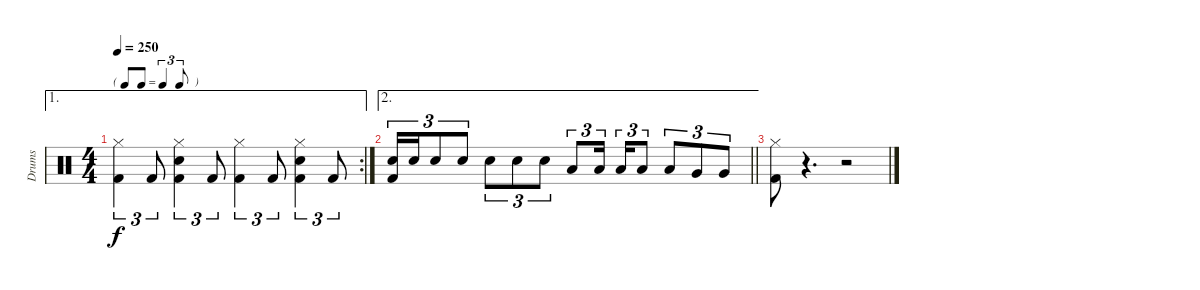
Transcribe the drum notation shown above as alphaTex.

\track ("Drums" "Drums") {instrument percussion}
\staff {score}
\articulation defaults
\ae 1
\rc 2
\ts (4 4)
\tf triplet8th
\tempo 250
\clef neutral
\ks aminor
("Hi-Hat (closed)" "Kick (hit) 2").4{tu (3 2) dy f} "Kick (hit) 2".8{tu (3 2)} ("Hi-Hat (closed)" "Electric Snare (hit)" "Kick (hit) 2").4{tu (3 2)} "Kick (hit) 2".8{tu (3 2)} ("Hi-Hat (closed)" "Kick (hit) 2").4{tu (3 2)} "Kick (hit) 2".8{tu (3 2)} ("Hi-Hat (closed)" "Electric Snare (hit)" "Kick (hit) 2").4{tu (3 2)} "Kick (hit) 2".8{tu (3 2)} |
\ae 2
\barLineRight lightlight
("Electric Snare (hit)" "Kick (hit) 2").16{tu (3 2)} "Electric Snare (hit)".16{tu (3 2)} "Electric Snare (hit)".8{tu (3 2)} "Electric Snare (hit)".8{tu (3 2)} "Electric Snare (hit)".8{tu (3 2)} "Electric Snare (hit)".8{tu (3 2)} "Electric Snare (hit)".8{tu (3 2)} "Low Tom (hit)".8{tu (3 2)} "Low Tom (hit)".16{tu (3 2)} "Low Tom (hit)".16{tu (3 2)} "Low Tom (hit)".8{tu (3 2)} "Low Tom (hit)".8{tu (3 2)} "Very Low Tom (hit)".8{tu (3 2)} "Very Low Tom (hit)".8{tu (3 2)} |
("Hi-Hat (closed)" "Kick (hit) 2").8 r.4{d} r.2
